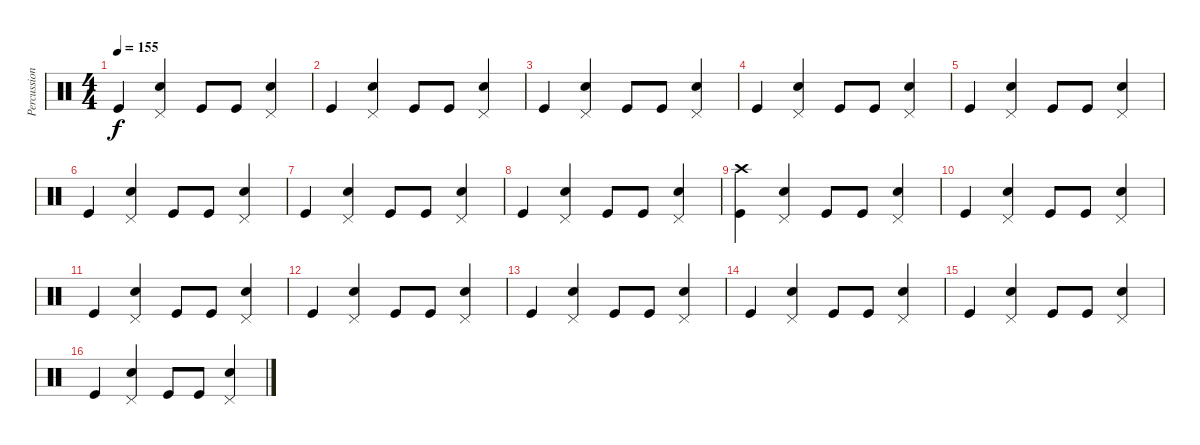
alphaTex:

\track ("Percussion" "Percussion") {instrument percussion}
\staff {score}
\articulation defaults
\ts (4 4)
\tempo 155
\clef neutral
\ks c "Kick (hit)".4{dy f}
("Snare (hit) 2" "Pedal Hi-Hat (hit)").4 "Kick (hit)".8 "Kick (hit)".8 ("Snare (hit) 2" "Pedal Hi-Hat (hit)").4 |
"Kick (hit)".4 ("Snare (hit) 2" "Pedal Hi-Hat (hit)").4 "Kick (hit)".8 "Kick (hit)".8 ("Snare (hit) 2" "Pedal Hi-Hat (hit)").4 |
"Kick (hit)".4 ("Snare (hit) 2" "Pedal Hi-Hat (hit)").4 "Kick (hit)".8 "Kick (hit)".8 ("Snare (hit) 2" "Pedal Hi-Hat (hit)").4 |
"Kick (hit)".4 ("Snare (hit) 2" "Pedal Hi-Hat (hit)").4 "Kick (hit)".8 "Kick (hit)".8 ("Snare (hit) 2" "Pedal Hi-Hat (hit)").4 |
"Kick (hit)".4 ("Snare (hit) 2" "Pedal Hi-Hat (hit)").4 "Kick (hit)".8 "Kick (hit)".8 ("Snare (hit) 2" "Pedal Hi-Hat (hit)").4 |
"Kick (hit)".4 ("Snare (hit) 2" "Pedal Hi-Hat (hit)").4 "Kick (hit)".8 "Kick (hit)".8 ("Snare (hit) 2" "Pedal Hi-Hat (hit)").4 |
"Kick (hit)".4 ("Snare (hit) 2" "Pedal Hi-Hat (hit)").4 "Kick (hit)".8 "Kick (hit)".8 ("Snare (hit) 2" "Pedal Hi-Hat (hit)").4 |
"Kick (hit)".4 ("Snare (hit) 2" "Pedal Hi-Hat (hit)").4 "Kick (hit)".8 "Kick (hit)".8 ("Snare (hit) 2" "Pedal Hi-Hat (hit)").4 |
("Kick (hit)" "Crash high (hit)").4 ("Snare (hit) 2" "Pedal Hi-Hat (hit)").4 "Kick (hit)".8 "Kick (hit)".8 ("Snare (hit) 2" "Pedal Hi-Hat (hit)").4 |
"Kick (hit)".4 ("Snare (hit) 2" "Pedal Hi-Hat (hit)").4 "Kick (hit)".8 "Kick (hit)".8 ("Snare (hit) 2" "Pedal Hi-Hat (hit)").4 |
"Kick (hit)".4 ("Snare (hit) 2" "Pedal Hi-Hat (hit)").4 "Kick (hit)".8 "Kick (hit)".8 ("Snare (hit) 2" "Pedal Hi-Hat (hit)").4 |
"Kick (hit)".4 ("Snare (hit) 2" "Pedal Hi-Hat (hit)").4 "Kick (hit)".8 "Kick (hit)".8 ("Snare (hit) 2" "Pedal Hi-Hat (hit)").4 |
"Kick (hit)".4 ("Snare (hit) 2" "Pedal Hi-Hat (hit)").4 "Kick (hit)".8 "Kick (hit)".8 ("Snare (hit) 2" "Pedal Hi-Hat (hit)").4 |
"Kick (hit)".4 ("Snare (hit) 2" "Pedal Hi-Hat (hit)").4 "Kick (hit)".8 "Kick (hit)".8 ("Snare (hit) 2" "Pedal Hi-Hat (hit)").4 |
"Kick (hit)".4 ("Snare (hit) 2" "Pedal Hi-Hat (hit)").4 "Kick (hit)".8 "Kick (hit)".8 ("Snare (hit) 2" "Pedal Hi-Hat (hit)").4 |
"Kick (hit)".4 ("Snare (hit) 2" "Pedal Hi-Hat (hit)").4 "Kick (hit)".8 "Kick (hit)".8 ("Snare (hit) 2" "Pedal Hi-Hat (hit)").4
